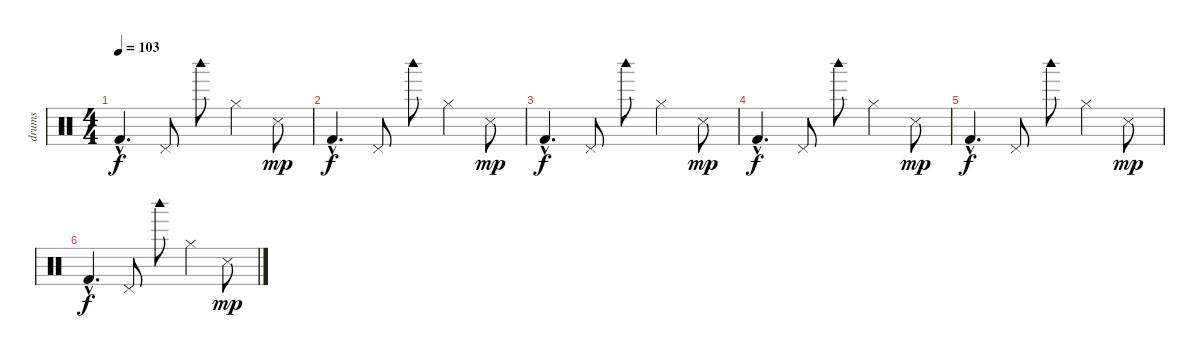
\track ("drums" "drums") {instrument percussion}
\staff {score}
\articulation defaults
\ts (4 4)
\tempo 103
\clef neutral
\ks c "Kick (hit) 2"{hac}.4{d dy f} "Pedal Hi-Hat (hit)".8 "Woodblock high (hit)".8 "Hi-Hat (closed)".4 "Snare (side stick) 3".8{dy mp}
|
"Kick (hit) 2"{hac}.4{d dy f} "Pedal Hi-Hat (hit)".8 "Woodblock high (hit)".8 "Hi-Hat (closed)".4 "Snare (side stick) 3".8{dy mp} |
"Kick (hit) 2"{hac}.4{d dy f} "Pedal Hi-Hat (hit)".8 "Woodblock high (hit)".8 "Hi-Hat (closed)".4 "Snare (side stick) 3".8{dy mp} |
"Kick (hit) 2"{hac}.4{d dy f} "Pedal Hi-Hat (hit)".8 "Woodblock high (hit)".8 "Hi-Hat (closed)".4 "Snare (side stick) 3".8{dy mp} |
"Kick (hit) 2"{hac}.4{d dy f} "Pedal Hi-Hat (hit)".8 "Woodblock high (hit)".8 "Hi-Hat (closed)".4 "Snare (side stick) 3".8{dy mp} |
"Kick (hit) 2"{hac}.4{d dy f} "Pedal Hi-Hat (hit)".8 "Woodblock high (hit)".8 "Hi-Hat (closed)".4 "Snare (side stick) 3".8{dy mp}
